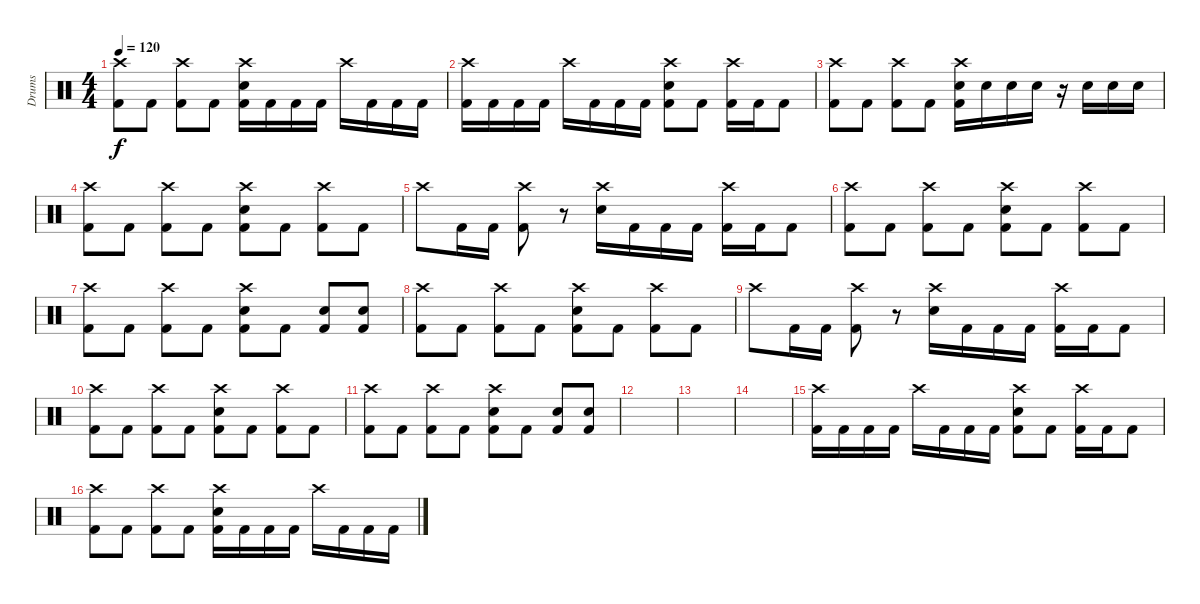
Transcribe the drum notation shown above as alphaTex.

\track ("Drums" "Drums") {instrument percussion}
\staff {score}
\articulation defaults
\ts (4 4)
\tempo 120
\clef neutral
\ks c
("Crash high (hit)" "Kick (hit) 2").8{dy f} "Kick (hit) 2".8 ("Crash high (hit)" "Kick (hit) 2").8 "Kick (hit) 2".8 ("Crash high (hit)" "Electric Snare (hit)" "Kick (hit) 2").16 "Kick (hit) 2".16 "Kick (hit) 2".16 "Kick (hit) 2".16 "Crash high (hit)".16 "Kick (hit) 2".16 "Kick (hit) 2".16 "Kick (hit) 2".16 |
("Crash high (hit)" "Kick (hit) 2").16 "Kick (hit) 2".16 "Kick (hit) 2".16 "Kick (hit) 2".16 "Crash high (hit)".16 "Kick (hit) 2".16 "Kick (hit) 2".16 "Kick (hit) 2".16 ("Crash high (hit)" "Electric Snare (hit)" "Kick (hit) 2").8 "Kick (hit) 2".8 ("Crash high (hit)" "Kick (hit) 2").16 "Kick (hit) 2".16 "Kick (hit) 2".8 |
("Crash high (hit)" "Kick (hit) 2").8 "Kick (hit) 2".8 ("Crash high (hit)" "Kick (hit) 2").8 "Kick (hit) 2".8 ("Crash high (hit)" "Electric Snare (hit)" "Kick (hit) 2").16 "Electric Snare (hit)".16 "Electric Snare (hit)".16 "Electric Snare (hit)".16 r.16 "Electric Snare (hit)".16 "Electric Snare (hit)".16 "Electric Snare (hit)".16 |
("Crash high (hit)" "Kick (hit) 2").8 "Kick (hit) 2".8 ("Crash high (hit)" "Kick (hit) 2").8 "Kick (hit) 2".8 ("Crash high (hit)" "Electric Snare (hit)" "Kick (hit) 2").8 "Kick (hit) 2".8 ("Crash high (hit)" "Kick (hit) 2").8 "Kick (hit) 2".8 |
"Crash high (hit)".8 "Kick (hit) 2".16 "Kick (hit) 2".16 ("Crash high (hit)" "Kick (hit) 2").8 r.8 ("Crash high (hit)" "Electric Snare (hit)").16 "Kick (hit) 2".16 "Kick (hit) 2".16 "Kick (hit) 2".16 ("Crash high (hit)" "Kick (hit) 2").16 "Kick (hit) 2".16 "Kick (hit) 2".8 |
("Crash high (hit)" "Kick (hit) 2").8 "Kick (hit) 2".8 ("Crash high (hit)" "Kick (hit) 2").8 "Kick (hit) 2".8 ("Crash high (hit)" "Electric Snare (hit)" "Kick (hit) 2").8 "Kick (hit) 2".8 ("Crash high (hit)" "Kick (hit) 2").8 "Kick (hit) 2".8 |
("Crash high (hit)" "Kick (hit) 2").8 "Kick (hit) 2".8 ("Crash high (hit)" "Kick (hit) 2").8 "Kick (hit) 2".8 ("Crash high (hit)" "Electric Snare (hit)" "Kick (hit) 2").8 "Kick (hit) 2".8 ("Electric Snare (hit)" "Kick (hit) 2").8 ("Electric Snare (hit)" "Kick (hit) 2").8 |
("Crash high (hit)" "Kick (hit) 2").8 "Kick (hit) 2".8 ("Crash high (hit)" "Kick (hit) 2").8 "Kick (hit) 2".8 ("Crash high (hit)" "Electric Snare (hit)" "Kick (hit) 2").8 "Kick (hit) 2".8 ("Crash high (hit)" "Kick (hit) 2").8 "Kick (hit) 2".8 |
"Crash high (hit)".8 "Kick (hit) 2".16 "Kick (hit) 2".16 ("Crash high (hit)" "Kick (hit) 2").8 r.8 ("Crash high (hit)" "Electric Snare (hit)").16 "Kick (hit) 2".16 "Kick (hit) 2".16 "Kick (hit) 2".16 ("Crash high (hit)" "Kick (hit) 2").16 "Kick (hit) 2".16 "Kick (hit) 2".8 |
("Crash high (hit)" "Kick (hit) 2").8 "Kick (hit) 2".8 ("Crash high (hit)" "Kick (hit) 2").8 "Kick (hit) 2".8 ("Crash high (hit)" "Electric Snare (hit)" "Kick (hit) 2").8 "Kick (hit) 2".8 ("Crash high (hit)" "Kick (hit) 2").8 "Kick (hit) 2".8 |
("Crash high (hit)" "Kick (hit) 2").8 "Kick (hit) 2".8 ("Crash high (hit)" "Kick (hit) 2").8 "Kick (hit) 2".8 ("Crash high (hit)" "Electric Snare (hit)" "Kick (hit) 2").8 "Kick (hit) 2".8 ("Electric Snare (hit)" "Kick (hit) 2").8 ("Electric Snare (hit)" "Kick (hit) 2").8 |
|
|
|
("Crash high (hit)" "Kick (hit) 2").16 "Kick (hit) 2".16 "Kick (hit) 2".16 "Kick (hit) 2".16 "Crash high (hit)".16 "Kick (hit) 2".16 "Kick (hit) 2".16 "Kick (hit) 2".16 ("Crash high (hit)" "Electric Snare (hit)" "Kick (hit) 2").8 "Kick (hit) 2".8 ("Crash high (hit)" "Kick (hit) 2").16 "Kick (hit) 2".16 "Kick (hit) 2".8 |
("Crash high (hit)" "Kick (hit) 2").8 "Kick (hit) 2".8 ("Crash high (hit)" "Kick (hit) 2").8 "Kick (hit) 2".8 ("Crash high (hit)" "Electric Snare (hit)" "Kick (hit) 2").16 "Kick (hit) 2".16 "Kick (hit) 2".16 "Kick (hit) 2".16 "Crash high (hit)".16 "Kick (hit) 2".16 "Kick (hit) 2".16 "Kick (hit) 2".16
